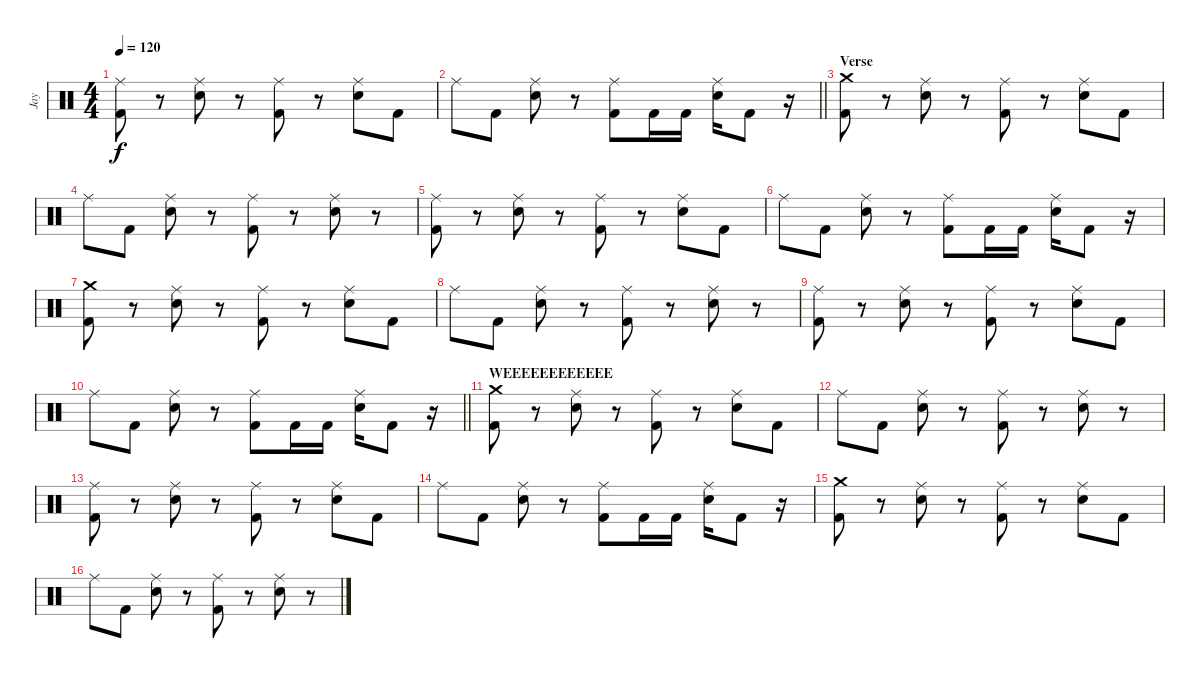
\track ("Jay" "Jay") {instrument percussion}
\staff {score}
\articulation defaults
\ts (4 4)
\tempo 120
\clef neutral
\ks c
("Kick (hit) 2" "Ride (middle)").8{dy f} r.8 ("Electric Snare (hit)" "Ride (middle)").8 r.8 ("Kick (hit) 2" "Ride (middle)").8 r.8 ("Electric Snare (hit)" "Ride (middle)").8 "Kick (hit) 2".8 |
\barLineRight lightlight "Ride (middle)".8 "Kick (hit) 2".8
("Electric Snare (hit)" "Ride (middle)").8 r.8 ("Kick (hit) 2" "Ride (middle)").8 "Kick (hit) 2".16 "Kick (hit) 2".16 ("Electric Snare (hit)" "Ride (middle)").16 "Kick (hit) 2".8 r.16 |
\section ("" "Verse")
("Kick (hit) 2" "Crash medium (hit)").8 r.8 ("Electric Snare (hit)" "Ride (middle)").8 r.8 ("Kick (hit) 2" "Ride (middle)").8 r.8 ("Electric Snare (hit)" "Ride (middle)").8 "Kick (hit) 2".8 |
"Ride (middle)".8 "Kick (hit) 2".8 ("Electric Snare (hit)" "Ride (middle)").8 r.8 ("Kick (hit) 2" "Ride (middle)").8 r.8 ("Electric Snare (hit)" "Ride (middle)").8 r.8 |
("Kick (hit) 2" "Ride (middle)").8 r.8 ("Electric Snare (hit)" "Ride (middle)").8 r.8 ("Kick (hit) 2" "Ride (middle)").8 r.8 ("Electric Snare (hit)" "Ride (middle)").8 "Kick (hit) 2".8 |
"Ride (middle)".8 "Kick (hit) 2".8 ("Electric Snare (hit)" "Ride (middle)").8 r.8 ("Kick (hit) 2" "Ride (middle)").8 "Kick (hit) 2".16 "Kick (hit) 2".16 ("Electric Snare (hit)" "Ride (middle)").16 "Kick (hit) 2".8 r.16 |
("Kick (hit) 2" "Crash medium (hit)").8 r.8 ("Electric Snare (hit)" "Ride (middle)").8 r.8 ("Kick (hit) 2" "Ride (middle)").8 r.8 ("Electric Snare (hit)" "Ride (middle)").8 "Kick (hit) 2".8 |
"Ride (middle)".8 "Kick (hit) 2".8 ("Electric Snare (hit)" "Ride (middle)").8 r.8 ("Kick (hit) 2" "Ride (middle)").8 r.8 ("Electric Snare (hit)" "Ride (middle)").8 r.8 |
("Kick (hit) 2" "Ride (middle)").8 r.8 ("Electric Snare (hit)" "Ride (middle)").8 r.8 ("Kick (hit) 2" "Ride (middle)").8 r.8 ("Electric Snare (hit)" "Ride (middle)").8 "Kick (hit) 2".8 |
\barLineRight lightlight "Ride (middle)".8 "Kick (hit) 2".8
("Electric Snare (hit)" "Ride (middle)").8 r.8 ("Kick (hit) 2" "Ride (middle)").8 "Kick (hit) 2".16 "Kick (hit) 2".16 ("Electric Snare (hit)" "Ride (middle)").16 "Kick (hit) 2".8 r.16 |
\section ("" "WEEEEEEEEEEEE")
("Kick (hit) 2" "Crash medium (hit)").8 r.8 ("Electric Snare (hit)" "Ride (middle)").8 r.8 ("Kick (hit) 2" "Ride (middle)").8 r.8 ("Electric Snare (hit)" "Ride (middle)").8 "Kick (hit) 2".8 |
"Ride (middle)".8 "Kick (hit) 2".8 ("Electric Snare (hit)" "Ride (middle)").8 r.8 ("Kick (hit) 2" "Ride (middle)").8 r.8 ("Electric Snare (hit)" "Ride (middle)").8 r.8 |
("Kick (hit) 2" "Ride (middle)").8 r.8 ("Electric Snare (hit)" "Ride (middle)").8 r.8 ("Kick (hit) 2" "Ride (middle)").8 r.8 ("Electric Snare (hit)" "Ride (middle)").8 "Kick (hit) 2".8 |
"Ride (middle)".8 "Kick (hit) 2".8 ("Electric Snare (hit)" "Ride (middle)").8 r.8 ("Kick (hit) 2" "Ride (middle)").8 "Kick (hit) 2".16 "Kick (hit) 2".16 ("Electric Snare (hit)" "Ride (middle)").16 "Kick (hit) 2".8 r.16 |
("Kick (hit) 2" "Crash medium (hit)").8 r.8 ("Electric Snare (hit)" "Ride (middle)").8 r.8 ("Kick (hit) 2" "Ride (middle)").8 r.8 ("Electric Snare (hit)" "Ride (middle)").8 "Kick (hit) 2".8 |
"Ride (middle)".8 "Kick (hit) 2".8 ("Electric Snare (hit)" "Ride (middle)").8 r.8 ("Kick (hit) 2" "Ride (middle)").8 r.8 ("Electric Snare (hit)" "Ride (middle)").8 r.8
